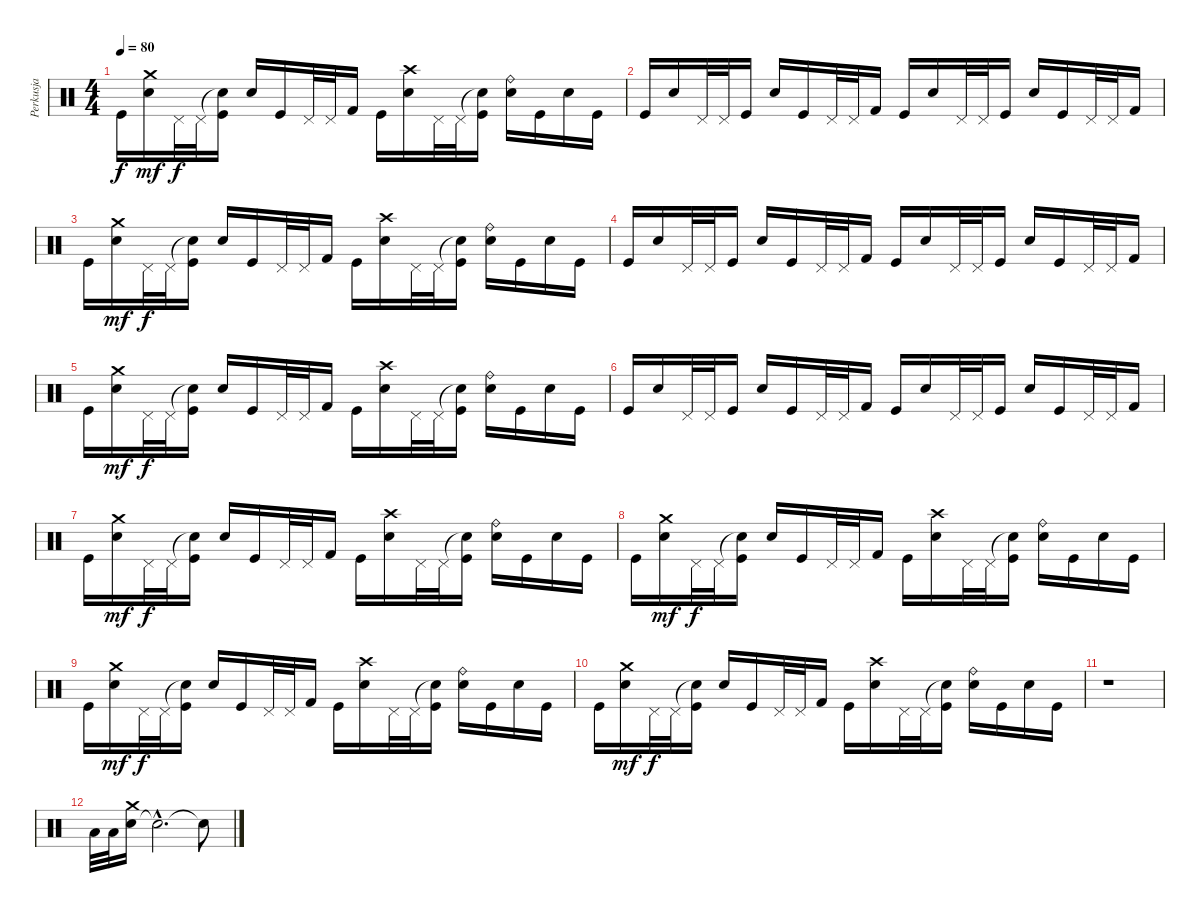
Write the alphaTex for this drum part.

\track ("Perkusja" "Perkusja") {instrument percussion}
\staff {score}
\articulation defaults
\ts (4 4)
\tempo 80
\clef neutral
\ks c "Kick (hit)".16{dy f}
("Electric Snare (hit)" "Crash medium (hit)").16{dy mf} "Pedal Hi-Hat (hit)".32{dy f} "Pedal Hi-Hat (hit)".32 ("Snare (hit)"{t} "Kick (hit)").16 "Electric Snare (hit)".16 "Kick (hit)".16 "Pedal Hi-Hat (hit)".32 "Pedal Hi-Hat (hit)".32 "Kick (hit) 2".16 "Kick (hit)".16 ("Electric Snare (hit)" "Crash high (hit)").16 "Pedal Hi-Hat (hit)".32 "Pedal Hi-Hat (hit)".32 ("Snare (hit)"{t} "Kick (hit)").16 ("Electric Snare (hit)" "Ride (bell)").16 "Kick (hit)".16 "Electric Snare (hit)".16 "Kick (hit)".16 |
"Kick (hit)".16 "Electric Snare (hit)".16 "Pedal Hi-Hat (hit)".32 "Pedal Hi-Hat (hit)".32 "Kick (hit)".16 "Electric Snare (hit)".16 "Kick (hit)".16 "Pedal Hi-Hat (hit)".32 "Pedal Hi-Hat (hit)".32 "Kick (hit) 2".16 "Kick (hit)".16 "Electric Snare (hit)".16 "Pedal Hi-Hat (hit)".32 "Pedal Hi-Hat (hit)".32 "Kick (hit)".16 "Electric Snare (hit)".16 "Kick (hit)".16 "Pedal Hi-Hat (hit)".32 "Pedal Hi-Hat (hit)".32 "Kick (hit) 2".16 |
"Kick (hit)".16 ("Electric Snare (hit)" "Crash medium (hit)").16{dy mf} "Pedal Hi-Hat (hit)".32{dy f} "Pedal Hi-Hat (hit)".32 ("Snare (hit)"{t} "Kick (hit)").16 "Electric Snare (hit)".16 "Kick (hit)".16 "Pedal Hi-Hat (hit)".32 "Pedal Hi-Hat (hit)".32 "Kick (hit) 2".16 "Kick (hit)".16 ("Electric Snare (hit)" "Crash high (hit)").16 "Pedal Hi-Hat (hit)".32 "Pedal Hi-Hat (hit)".32 ("Snare (hit)"{t} "Kick (hit)").16 ("Electric Snare (hit)" "Ride (bell)").16 "Kick (hit)".16 "Electric Snare (hit)".16 "Kick (hit)".16 |
"Kick (hit)".16 "Electric Snare (hit)".16 "Pedal Hi-Hat (hit)".32 "Pedal Hi-Hat (hit)".32 "Kick (hit)".16 "Electric Snare (hit)".16 "Kick (hit)".16 "Pedal Hi-Hat (hit)".32 "Pedal Hi-Hat (hit)".32 "Kick (hit) 2".16 "Kick (hit)".16 "Electric Snare (hit)".16 "Pedal Hi-Hat (hit)".32 "Pedal Hi-Hat (hit)".32 "Kick (hit)".16 "Electric Snare (hit)".16 "Kick (hit)".16 "Pedal Hi-Hat (hit)".32 "Pedal Hi-Hat (hit)".32 "Kick (hit) 2".16 |
"Kick (hit)".16 ("Electric Snare (hit)" "Crash medium (hit)").16{dy mf} "Pedal Hi-Hat (hit)".32{dy f} "Pedal Hi-Hat (hit)".32 ("Snare (hit)"{t} "Kick (hit)").16 "Electric Snare (hit)".16 "Kick (hit)".16 "Pedal Hi-Hat (hit)".32 "Pedal Hi-Hat (hit)".32 "Kick (hit) 2".16 "Kick (hit)".16 ("Electric Snare (hit)" "Crash high (hit)").16 "Pedal Hi-Hat (hit)".32 "Pedal Hi-Hat (hit)".32 ("Snare (hit)"{t} "Kick (hit)").16 ("Electric Snare (hit)" "Ride (bell)").16 "Kick (hit)".16 "Electric Snare (hit)".16 "Kick (hit)".16 |
"Kick (hit)".16 "Electric Snare (hit)".16 "Pedal Hi-Hat (hit)".32 "Pedal Hi-Hat (hit)".32 "Kick (hit)".16 "Electric Snare (hit)".16 "Kick (hit)".16 "Pedal Hi-Hat (hit)".32 "Pedal Hi-Hat (hit)".32 "Kick (hit) 2".16 "Kick (hit)".16 "Electric Snare (hit)".16 "Pedal Hi-Hat (hit)".32 "Pedal Hi-Hat (hit)".32 "Kick (hit)".16 "Electric Snare (hit)".16 "Kick (hit)".16 "Pedal Hi-Hat (hit)".32 "Pedal Hi-Hat (hit)".32 "Kick (hit) 2".16 |
"Kick (hit)".16 ("Electric Snare (hit)" "Crash medium (hit)").16{dy mf} "Pedal Hi-Hat (hit)".32{dy f} "Pedal Hi-Hat (hit)".32 ("Snare (hit)"{t} "Kick (hit)").16 "Electric Snare (hit)".16 "Kick (hit)".16 "Pedal Hi-Hat (hit)".32 "Pedal Hi-Hat (hit)".32 "Kick (hit) 2".16 "Kick (hit)".16 ("Electric Snare (hit)" "Crash high (hit)").16 "Pedal Hi-Hat (hit)".32 "Pedal Hi-Hat (hit)".32 ("Snare (hit)"{t} "Kick (hit)").16 ("Electric Snare (hit)" "Ride (bell)").16 "Kick (hit)".16 "Electric Snare (hit)".16 "Kick (hit)".16 |
"Kick (hit)".16 ("Electric Snare (hit)" "Crash medium (hit)").16{dy mf} "Pedal Hi-Hat (hit)".32{dy f} "Pedal Hi-Hat (hit)".32 ("Snare (hit)"{t} "Kick (hit)").16 "Electric Snare (hit)".16 "Kick (hit)".16 "Pedal Hi-Hat (hit)".32 "Pedal Hi-Hat (hit)".32 "Kick (hit) 2".16 "Kick (hit)".16 ("Electric Snare (hit)" "Crash high (hit)").16 "Pedal Hi-Hat (hit)".32 "Pedal Hi-Hat (hit)".32 ("Snare (hit)"{t} "Kick (hit)").16 ("Electric Snare (hit)" "Ride (bell)").16 "Kick (hit)".16 "Electric Snare (hit)".16 "Kick (hit)".16 |
"Kick (hit)".16{volume 8} ("Electric Snare (hit)" "Crash medium (hit)").16{dy mf} "Pedal Hi-Hat (hit)".32{dy f} "Pedal Hi-Hat (hit)".32 ("Snare (hit)"{t} "Kick (hit)").16 "Electric Snare (hit)".16 "Kick (hit)".16 "Pedal Hi-Hat (hit)".32 "Pedal Hi-Hat (hit)".32 "Kick (hit) 2".16 "Kick (hit)".16 ("Electric Snare (hit)" "Crash high (hit)").16 "Pedal Hi-Hat (hit)".32 "Pedal Hi-Hat (hit)".32 ("Snare (hit)"{t} "Kick (hit)").16 ("Electric Snare (hit)" "Ride (bell)").16 "Kick (hit)".16 "Electric Snare (hit)".16 "Kick (hit)".16 |
"Kick (hit)".16{volume 5} ("Electric Snare (hit)" "Crash medium (hit)").16{dy mf} "Pedal Hi-Hat (hit)".32{dy f} "Pedal Hi-Hat (hit)".32 ("Snare (hit)"{t} "Kick (hit)").16 "Electric Snare (hit)".16 "Kick (hit)".16 "Pedal Hi-Hat (hit)".32 "Pedal Hi-Hat (hit)".32 "Kick (hit) 2".16 "Kick (hit)".16 ("Electric Snare (hit)" "Crash high (hit)").16 "Pedal Hi-Hat (hit)".32 "Pedal Hi-Hat (hit)".32 ("Snare (hit)"{t} "Kick (hit)").16 ("Electric Snare (hit)" "Ride (bell)").16 "Kick (hit)".16 "Electric Snare (hit)".16 "Kick (hit)".16 |
r.1 |
"Low Tom (hit)".32{volume 12} "Low Tom (hit)".32 ("Electric Snare (hit)" "Crash medium (hit)").16 "Snare (hit)"{hac t}.2{d} "Snare (hit)"{t}.8
